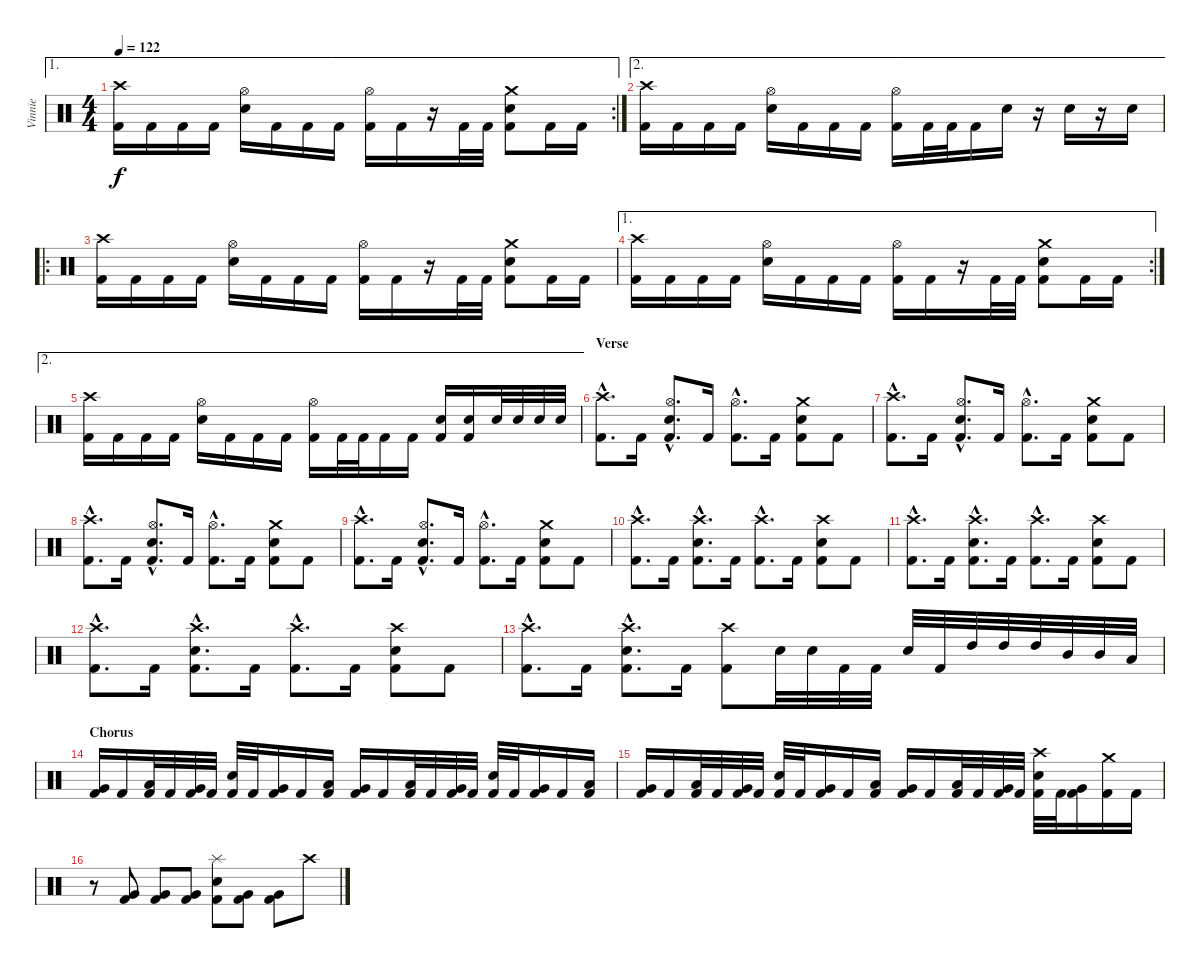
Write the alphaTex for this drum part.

\track ("Vinnie" "Vinnie") {instrument percussion}
\staff {score}
\articulation defaults
\ae 1
\rc 2
\ts (4 4)
\tempo 122
\clef neutral
\ks c
("Crash high (hit)" "Kick (hit) 2").16{dy f} "Kick (hit) 2".16 "Kick (hit) 2".16 "Kick (hit) 2".16 ("Hi-Hat (open)" "Snare (hit) 2").16 "Kick (hit) 2".16 "Kick (hit) 2".16 "Kick (hit) 2".16 ("Hi-Hat (open)" "Kick (hit) 2").16 "Kick (hit) 2".16 r.16 "Kick (hit) 2".32 "Kick (hit) 2".32 ("Crash medium (hit)" "Snare (hit) 2" "Kick (hit) 2").8 "Kick (hit) 2".16 "Kick (hit) 2".16 |
\ae 2
("Crash high (hit)" "Kick (hit) 2").16 "Kick (hit) 2".16 "Kick (hit) 2".16 "Kick (hit) 2".16 ("Hi-Hat (open)" "Snare (hit) 2").16 "Kick (hit) 2".16 "Kick (hit) 2".16 "Kick (hit) 2".16 ("Hi-Hat (open)" "Kick (hit) 2").16 "Kick (hit) 2".32 "Kick (hit) 2".32 "Kick (hit) 2".16 "Snare (hit) 2".16 r.16 "Snare (hit) 2".16 r.16 "Snare (hit) 2".16 |
\ro
("Crash high (hit)" "Kick (hit) 2").16 "Kick (hit) 2".16 "Kick (hit) 2".16 "Kick (hit) 2".16 ("Hi-Hat (open)" "Snare (hit) 2").16 "Kick (hit) 2".16 "Kick (hit) 2".16 "Kick (hit) 2".16 ("Hi-Hat (open)" "Kick (hit) 2").16 "Kick (hit) 2".16 r.16 "Kick (hit) 2".32 "Kick (hit) 2".32 ("Crash medium (hit)" "Snare (hit) 2" "Kick (hit) 2").8 "Kick (hit) 2".16 "Kick (hit) 2".16 |
\ae 1
\rc 2
("Crash high (hit)" "Kick (hit) 2").16 "Kick (hit) 2".16 "Kick (hit) 2".16 "Kick (hit) 2".16 ("Hi-Hat (open)" "Snare (hit) 2").16 "Kick (hit) 2".16 "Kick (hit) 2".16 "Kick (hit) 2".16 ("Hi-Hat (open)" "Kick (hit) 2").16 "Kick (hit) 2".16 r.16 "Kick (hit) 2".32 "Kick (hit) 2".32 ("Crash medium (hit)" "Snare (hit) 2" "Kick (hit) 2").8 "Kick (hit) 2".16 "Kick (hit) 2".16 |
\ae 2
("Crash high (hit)" "Kick (hit) 2").16 "Kick (hit) 2".16 "Kick (hit) 2".16 "Kick (hit) 2".16 ("Hi-Hat (open)" "Snare (hit) 2").16 "Kick (hit) 2".16 "Kick (hit) 2".16 "Kick (hit) 2".16 ("Hi-Hat (open)" "Kick (hit) 2").16 "Kick (hit) 2".32 "Kick (hit) 2".32 "Kick (hit) 2".16 "Kick (hit) 2".16 ("Snare (hit) 2" "Kick (hit) 2").16 ("Snare (hit) 2" "Kick (hit) 2").16 "Snare (hit) 2".32 "Snare (hit) 2".32 "Snare (hit) 2".32 "Snare (hit) 2".32 |
\section ("" "Verse")
("Crash high (hit)"{hac} "Kick (hit) 2"{hac}).8{d} "Kick (hit) 2".16 ("Hi-Hat (open)"{hac} "Snare (hit) 2"{hac} "Kick (hit) 2"{hac}).8{d} "Kick (hit) 2".16 ("Hi-Hat (open)"{hac} "Kick (hit) 2"{hac}).8{d} "Kick (hit) 2".16 ("Crash medium (hit)" "Snare (hit) 2" "Kick (hit) 2").8 "Kick (hit) 2".8 |
("Crash high (hit)"{hac} "Kick (hit) 2"{hac}).8{d} "Kick (hit) 2".16 ("Hi-Hat (open)"{hac} "Snare (hit) 2"{hac} "Kick (hit) 2"{hac}).8{d} "Kick (hit) 2".16 ("Hi-Hat (open)"{hac} "Kick (hit) 2"{hac}).8{d} "Kick (hit) 2".16 ("Crash medium (hit)" "Snare (hit) 2" "Kick (hit) 2").8 "Kick (hit) 2".8 |
("Crash high (hit)"{hac} "Kick (hit) 2"{hac}).8{d} "Kick (hit) 2".16 ("Hi-Hat (open)"{hac} "Snare (hit) 2"{hac} "Kick (hit) 2"{hac}).8{d} "Kick (hit) 2".16 ("Hi-Hat (open)"{hac} "Kick (hit) 2"{hac}).8{d} "Kick (hit) 2".16 ("Crash medium (hit)" "Snare (hit) 2" "Kick (hit) 2").8 "Kick (hit) 2".8 |
("Crash high (hit)"{hac} "Kick (hit) 2"{hac}).8{d} "Kick (hit) 2".16 ("Hi-Hat (open)"{hac} "Snare (hit) 2"{hac} "Kick (hit) 2"{hac}).8{d} "Kick (hit) 2".16 ("Hi-Hat (open)"{hac} "Kick (hit) 2"{hac}).8{d} "Kick (hit) 2".16 ("Crash medium (hit)" "Snare (hit) 2" "Kick (hit) 2").8 "Kick (hit) 2".8 |
("Crash high (hit)"{hac} "Kick (hit) 2"{hac}).8{d} "Kick (hit) 2".16 ("Crash high (hit)"{hac} "Snare (hit) 2"{hac} "Kick (hit) 2"{hac}).8{d} "Kick (hit) 2".16 ("Crash high (hit)"{hac} "Kick (hit) 2"{hac}).8{d} "Kick (hit) 2".16 ("Crash high (hit)" "Snare (hit) 2" "Kick (hit) 2").8 "Kick (hit) 2".8 |
("Crash high (hit)"{hac} "Kick (hit) 2"{hac}).8{d} "Kick (hit) 2".16 ("Crash high (hit)"{hac} "Snare (hit) 2"{hac} "Kick (hit) 2"{hac}).8{d} "Kick (hit) 2".16 ("Crash high (hit)"{hac} "Kick (hit) 2"{hac}).8{d} "Kick (hit) 2".16 ("Crash high (hit)" "Snare (hit) 2" "Kick (hit) 2").8 "Kick (hit) 2".8 |
("Crash high (hit)"{hac} "Kick (hit) 2"{hac}).8{d} "Kick (hit) 2".16 ("Crash high (hit)"{hac} "Snare (hit) 2"{hac} "Kick (hit) 2"{hac}).8{d} "Kick (hit) 2".16 ("Crash high (hit)"{hac} "Kick (hit) 2"{hac}).8{d} "Kick (hit) 2".16 ("Crash high (hit)" "Snare (hit) 2" "Kick (hit) 2").8 "Kick (hit) 2".8 |
("Crash high (hit)"{hac} "Kick (hit) 2"{hac}).8{d} "Kick (hit) 2".16 ("Crash high (hit)"{hac} "Snare (hit) 2"{hac} "Kick (hit) 2"{hac}).8{d} "Kick (hit) 2".16 ("Crash high (hit)" "Kick (hit) 2").8 "Snare (hit) 2".32 "Snare (hit) 2".32 "Kick (hit) 2".32 "Kick (hit) 2".32 "Snare (hit) 2".32 "Kick (hit) 2".32 "High Tom (hit)".32 "High Tom (hit)".32 "High Tom (hit)".32 "Mid Tom (hit)".32 "Mid Tom (hit)".32 "Low Tom (hit)".32 |
\section ("" "Chorus")
("Very Low Tom (hit)" "Kick (hit) 2").16 "Kick (hit) 2".16 ("Low Tom (hit)" "Kick (hit) 2").32 "Kick (hit) 2".32 ("Very Low Tom (hit)" "Kick (hit) 2").32 "Kick (hit) 2".32 ("Snare (hit) 2" "Kick (hit) 2").32 "Kick (hit) 2".32 ("Very Low Tom (hit)" "Kick (hit) 2").16 "Kick (hit) 2".16 ("Low Tom (hit)" "Kick (hit) 2").16 ("Very Low Tom (hit)" "Kick (hit) 2").16 "Kick (hit) 2".16 ("Low Tom (hit)" "Kick (hit) 2").32 "Kick (hit) 2".32 ("Very Low Tom (hit)" "Kick (hit) 2").32 "Kick (hit) 2".32 ("Snare (hit) 2" "Kick (hit) 2").32 "Kick (hit) 2".32 ("Very Low Tom (hit)" "Kick (hit) 2").16 "Kick (hit) 2".16 ("Low Tom (hit)" "Kick (hit) 2").16 |
("Very Low Tom (hit)" "Kick (hit) 2").16 "Kick (hit) 2".16 ("Low Tom (hit)" "Kick (hit) 2").32 "Kick (hit) 2".32 ("Very Low Tom (hit)" "Kick (hit) 2").32 "Kick (hit) 2".32 ("Snare (hit) 2" "Kick (hit) 2").32 "Kick (hit) 2".32 ("Very Low Tom (hit)" "Kick (hit) 2").16 "Kick (hit) 2".16 ("Low Tom (hit)" "Kick (hit) 2").16 ("Very Low Tom (hit)" "Kick (hit) 2").16 "Kick (hit) 2".16 ("Low Tom (hit)" "Kick (hit) 2").32 "Kick (hit) 2".32 ("Very Low Tom (hit)" "Kick (hit) 2").32 "Kick (hit) 2".32 ("Crash high (hit)" "Snare (hit) 2" "Kick (hit) 2").32 "Kick (hit) 2".32 ("Very Low Tom (hit)" "Kick (hit) 2").16 ("Crash medium (hit)" "Kick (hit) 2").16 "Kick (hit) 2".16 |
r.8 ("Very Low Tom (hit)" "Kick (hit) 2").8 ("Very Low Tom (hit)" "Kick (hit) 2").8 ("Very Low Tom (hit)" "Kick (hit) 2").8 ("Splash (hit)" "Snare (hit) 2" "Kick (hit) 2").8 ("Very Low Tom (hit)" "Kick (hit) 2").8 ("Very Low Tom (hit)" "Kick (hit) 2").8 "Crash high (hit)".8
